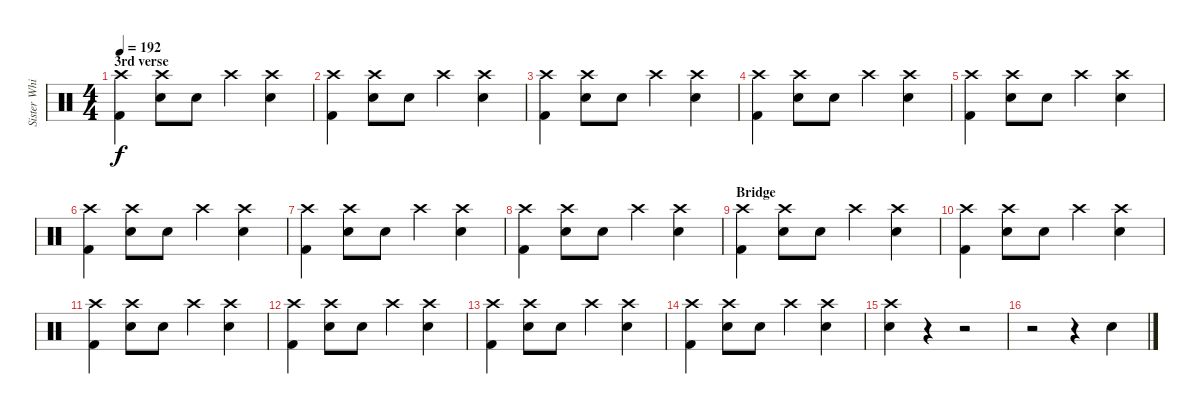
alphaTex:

\track ("Sister White" "Sister Whi") {instrument percussion}
\staff {score}
\articulation defaults
\ts (4 4)
\section ("" "3rd verse")
\tempo 192
\clef neutral
\ks c
("Crash high (hit)" "Kick (hit) 2").4{dy f} ("Crash high (hit)" "Electric Snare (hit)").8 "Electric Snare (hit)".8 "Crash high (hit)".4 ("Crash high (hit)" "Electric Snare (hit)").4 |
("Crash high (hit)" "Kick (hit) 2").4 ("Crash high (hit)" "Electric Snare (hit)").8 "Electric Snare (hit)".8 "Crash high (hit)".4 ("Crash high (hit)" "Electric Snare (hit)").4 |
("Crash high (hit)" "Kick (hit) 2").4 ("Crash high (hit)" "Electric Snare (hit)").8 "Electric Snare (hit)".8 "Crash high (hit)".4 ("Crash high (hit)" "Electric Snare (hit)").4 |
("Crash high (hit)" "Kick (hit) 2").4 ("Crash high (hit)" "Electric Snare (hit)").8 "Electric Snare (hit)".8 "Crash high (hit)".4 ("Crash high (hit)" "Electric Snare (hit)").4 |
("Crash high (hit)" "Kick (hit) 2").4 ("Crash high (hit)" "Electric Snare (hit)").8 "Electric Snare (hit)".8 "Crash high (hit)".4 ("Crash high (hit)" "Electric Snare (hit)").4 |
("Crash high (hit)" "Kick (hit) 2").4 ("Crash high (hit)" "Electric Snare (hit)").8 "Electric Snare (hit)".8 "Crash high (hit)".4 ("Crash high (hit)" "Electric Snare (hit)").4 |
("Crash high (hit)" "Kick (hit) 2").4 ("Crash high (hit)" "Electric Snare (hit)").8 "Electric Snare (hit)".8 "Crash high (hit)".4 ("Crash high (hit)" "Electric Snare (hit)").4 |
("Crash high (hit)" "Kick (hit) 2").4 ("Crash high (hit)" "Electric Snare (hit)").8 "Electric Snare (hit)".8 "Crash high (hit)".4 ("Crash high (hit)" "Electric Snare (hit)").4 |
\section ("" "Bridge")
("Crash high (hit)" "Kick (hit) 2").4 ("Crash high (hit)" "Electric Snare (hit)").8 "Electric Snare (hit)".8 "Crash high (hit)".4 ("Crash high (hit)" "Electric Snare (hit)").4 |
("Crash high (hit)" "Kick (hit) 2").4 ("Crash high (hit)" "Electric Snare (hit)").8 "Electric Snare (hit)".8 "Crash high (hit)".4 ("Crash high (hit)" "Electric Snare (hit)").4 |
("Crash high (hit)" "Kick (hit) 2").4 ("Crash high (hit)" "Electric Snare (hit)").8 "Electric Snare (hit)".8 "Crash high (hit)".4 ("Crash high (hit)" "Electric Snare (hit)").4 |
("Crash high (hit)" "Kick (hit) 2").4 ("Crash high (hit)" "Electric Snare (hit)").8 "Electric Snare (hit)".8 "Crash high (hit)".4 ("Crash high (hit)" "Electric Snare (hit)").4 |
("Crash high (hit)" "Kick (hit) 2").4 ("Crash high (hit)" "Electric Snare (hit)").8 "Electric Snare (hit)".8 "Crash high (hit)".4 ("Crash high (hit)" "Electric Snare (hit)").4 |
("Crash high (hit)" "Kick (hit) 2").4 ("Crash high (hit)" "Electric Snare (hit)").8 "Electric Snare (hit)".8 "Crash high (hit)".4 ("Crash high (hit)" "Electric Snare (hit)").4 |
("Crash high (hit)" "Electric Snare (hit)").4 r.4 r.2 |
r.2 r.4 "Electric Snare (hit)".4
